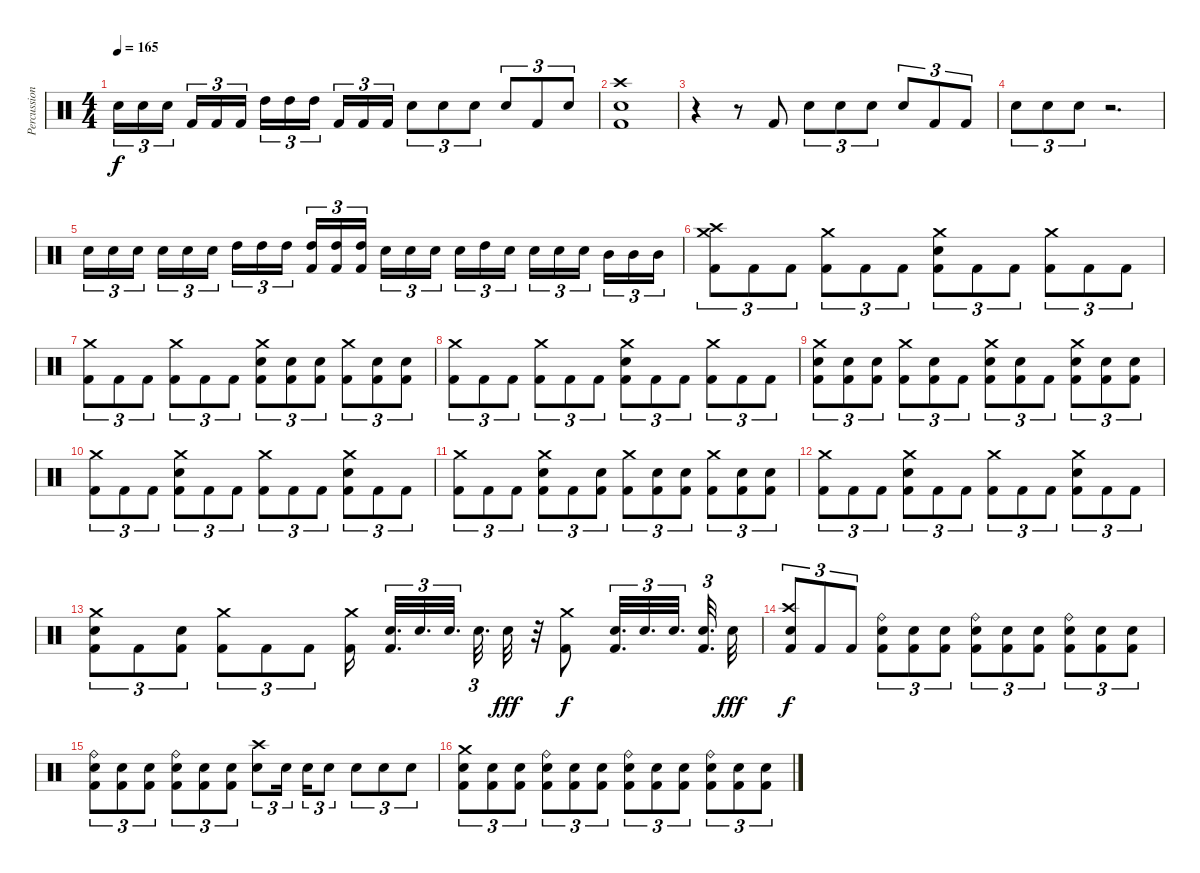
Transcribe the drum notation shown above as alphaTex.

\track ("Percussion" "Percussion") {instrument percussion}
\staff {score}
\articulation defaults
\ts (4 4)
\tempo 165
\clef neutral
\ks c "Electric Snare (hit)".16{tu (3 2) dy f} "Electric Snare (hit)".16{tu (3 2)} "Electric Snare (hit)".16{tu (3 2) beam splitsecondary} "Kick (hit) 2".16{tu (3 2)} "Kick (hit) 2".16{tu (3 2)} "Kick (hit) 2".16{tu (3 2)} "High Tom (hit)".16{tu (3 2)} "High Tom (hit)".16{tu (3 2)} "High Tom (hit)".16{tu (3 2) beam splitsecondary} "Kick (hit) 2".16{tu (3 2)} "Kick (hit) 2".16{tu (3 2)} "Kick (hit) 2".16{tu (3 2)} "Electric Snare (hit)".8{tu (3 2)} "Electric Snare (hit)".8{tu (3 2)} "Electric Snare (hit)".8{tu (3 2)} "Electric Snare (hit)".8{tu (3 2)} "Kick (hit) 2".8{tu (3 2)} "Electric Snare (hit)".8{tu (3 2)}
|
("Crash high (hit)" "Electric Snare (hit)" "Kick (hit) 2").1 |
r.4 r.8 "Kick (hit) 2".8 "Electric Snare (hit)".8{tu (3 2)} "Electric Snare (hit)".8{tu (3 2)} "Electric Snare (hit)".8{tu (3 2)} "Electric Snare (hit)".8{tu (3 2)} "Kick (hit) 2".8{tu (3 2)} "Kick (hit) 2".8{tu (3 2)} |
"Electric Snare (hit)".8{tu (3 2)} "Electric Snare (hit)".8{tu (3 2)} "Electric Snare (hit)".8{tu (3 2)} r.2{d} |
"Electric Snare (hit)".16{tu (3 2)} "Electric Snare (hit)".16{tu (3 2)} "Electric Snare (hit)".16{tu (3 2) beam splitsecondary} "Electric Snare (hit)".16{tu (3 2)} "Electric Snare (hit)".16{tu (3 2)} "Electric Snare (hit)".16{tu (3 2)} "High Tom (hit)".16{tu (3 2)} "High Tom (hit)".16{tu (3 2)} "High Tom (hit)".16{tu (3 2) beam splitsecondary} ("High Tom (hit)" "Kick (hit) 2").16{tu (3 2)} ("High Tom (hit)" "Kick (hit) 2").16{tu (3 2)} ("High Tom (hit)" "Kick (hit) 2").16{tu (3 2)} "Electric Snare (hit)".16{tu (3 2)} "Electric Snare (hit)".16{tu (3 2)} "Electric Snare (hit)".16{tu (3 2) beam splitsecondary} "Electric Snare (hit)".16{tu (3 2)} "High Tom (hit)".16{tu (3 2)} "Electric Snare (hit)".16{tu (3 2)} "Electric Snare (hit)".16{tu (3 2)} "Electric Snare (hit)".16{tu (3 2)} "Electric Snare (hit)".16{tu (3 2) beam splitsecondary} "Mid Tom (hit)".16{tu (3 2)} "Mid Tom (hit)".16{tu (3 2)} "Mid Tom (hit)".16{tu (3 2)} |
("Crash high (hit)" "Crash medium (hit)" "Kick (hit) 2").8{tu (3 2)} "Kick (hit) 2".8{tu (3 2)} "Kick (hit) 2".8{tu (3 2)} ("Crash medium (hit)" "Kick (hit) 2").8{tu (3 2)} "Kick (hit) 2".8{tu (3 2)} "Kick (hit) 2".8{tu (3 2)} ("Crash medium (hit)" "Electric Snare (hit)" "Kick (hit) 2").8{tu (3 2)} "Kick (hit) 2".8{tu (3 2)} "Kick (hit) 2".8{tu (3 2)} ("Crash medium (hit)" "Kick (hit) 2").8{tu (3 2)} "Kick (hit) 2".8{tu (3 2)} "Kick (hit) 2".8{tu (3 2)} |
("Crash medium (hit)" "Kick (hit) 2").8{tu (3 2)} "Kick (hit) 2".8{tu (3 2)} "Kick (hit) 2".8{tu (3 2)} ("Crash medium (hit)" "Kick (hit) 2").8{tu (3 2)} "Kick (hit) 2".8{tu (3 2)} "Kick (hit) 2".8{tu (3 2)} ("Crash medium (hit)" "Electric Snare (hit)" "Kick (hit) 2").8{tu (3 2)} ("Electric Snare (hit)" "Kick (hit) 2").8{tu (3 2)} ("Electric Snare (hit)" "Kick (hit) 2").8{tu (3 2)} ("Crash medium (hit)" "Kick (hit) 2").8{tu (3 2)} ("Electric Snare (hit)" "Kick (hit) 2").8{tu (3 2)} ("Electric Snare (hit)" "Kick (hit) 2").8{tu (3 2)} |
("Crash medium (hit)" "Kick (hit) 2").8{tu (3 2)} "Kick (hit) 2".8{tu (3 2)} "Kick (hit) 2".8{tu (3 2)} ("Crash medium (hit)" "Kick (hit) 2").8{tu (3 2)} "Kick (hit) 2".8{tu (3 2)} "Kick (hit) 2".8{tu (3 2)} ("Crash medium (hit)" "Electric Snare (hit)" "Kick (hit) 2").8{tu (3 2)} "Kick (hit) 2".8{tu (3 2)} "Kick (hit) 2".8{tu (3 2)} ("Crash medium (hit)" "Kick (hit) 2").8{tu (3 2)} "Kick (hit) 2".8{tu (3 2)} "Kick (hit) 2".8{tu (3 2)} |
("Crash medium (hit)" "Electric Snare (hit)" "Kick (hit) 2").8{tu (3 2)} ("Electric Snare (hit)" "Kick (hit) 2").8{tu (3 2)} ("Electric Snare (hit)" "Kick (hit) 2").8{tu (3 2)} ("Crash medium (hit)" "Kick (hit) 2").8{tu (3 2)} ("Electric Snare (hit)" "Kick (hit) 2").8{tu (3 2)} "Kick (hit) 2".8{tu (3 2)} ("Crash medium (hit)" "Electric Snare (hit)" "Kick (hit) 2").8{tu (3 2)} ("Electric Snare (hit)" "Kick (hit) 2").8{tu (3 2)} "Kick (hit) 2".8{tu (3 2)} ("Crash medium (hit)" "Electric Snare (hit)" "Kick (hit) 2").8{tu (3 2)} ("Electric Snare (hit)" "Kick (hit) 2").8{tu (3 2)} ("Electric Snare (hit)" "Kick (hit) 2").8{tu (3 2)} |
("Crash medium (hit)" "Kick (hit) 2").8{tu (3 2)} "Kick (hit) 2".8{tu (3 2)} "Kick (hit) 2".8{tu (3 2)} ("Crash medium (hit)" "Electric Snare (hit)" "Kick (hit) 2").8{tu (3 2)} "Kick (hit) 2".8{tu (3 2)} "Kick (hit) 2".8{tu (3 2)} ("Crash medium (hit)" "Kick (hit) 2").8{tu (3 2)} "Kick (hit) 2".8{tu (3 2)} "Kick (hit) 2".8{tu (3 2)} ("Crash medium (hit)" "Electric Snare (hit)" "Kick (hit) 2").8{tu (3 2)} "Kick (hit) 2".8{tu (3 2)} "Kick (hit) 2".8{tu (3 2)} |
("Crash medium (hit)" "Kick (hit) 2").8{tu (3 2)} "Kick (hit) 2".8{tu (3 2)} "Kick (hit) 2".8{tu (3 2)} ("Crash medium (hit)" "Electric Snare (hit)" "Kick (hit) 2").8{tu (3 2)} "Kick (hit) 2".8{tu (3 2)} ("Electric Snare (hit)" "Kick (hit) 2").8{tu (3 2)} ("Crash medium (hit)" "Kick (hit) 2").8{tu (3 2)} ("Electric Snare (hit)" "Kick (hit) 2").8{tu (3 2)} ("Electric Snare (hit)" "Kick (hit) 2").8{tu (3 2)} ("Crash medium (hit)" "Kick (hit) 2").8{tu (3 2)} ("Electric Snare (hit)" "Kick (hit) 2").8{tu (3 2)} ("Electric Snare (hit)" "Kick (hit) 2").8{tu (3 2)} |
("Crash medium (hit)" "Kick (hit) 2").8{tu (3 2)} "Kick (hit) 2".8{tu (3 2)} "Kick (hit) 2".8{tu (3 2)} ("Crash medium (hit)" "Electric Snare (hit)" "Kick (hit) 2").8{tu (3 2)} "Kick (hit) 2".8{tu (3 2)} "Kick (hit) 2".8{tu (3 2)} ("Crash medium (hit)" "Kick (hit) 2").8{tu (3 2)} "Kick (hit) 2".8{tu (3 2)} "Kick (hit) 2".8{tu (3 2)} ("Crash medium (hit)" "Electric Snare (hit)" "Kick (hit) 2").8{tu (3 2)} "Kick (hit) 2".8{tu (3 2)} "Kick (hit) 2".8{tu (3 2)} |
("Crash medium (hit)" "Electric Snare (hit)" "Kick (hit) 2").8{tu (3 2)} "Kick (hit) 2".8{tu (3 2)} ("Electric Snare (hit)" "Kick (hit) 2").8{tu (3 2)} ("Crash medium (hit)" "Kick (hit) 2").8{tu (3 2)} "Kick (hit) 2".8{tu (3 2)} "Kick (hit) 2".8{tu (3 2)} ("Crash medium (hit)" "Kick (hit) 2").16{beam splitsecondary} ("Electric Snare (hit)" "Kick (hit) 2").32{d tu (3 2)} "Electric Snare (hit)".32{d tu (3 2)} "Electric Snare (hit)".32{d tu (3 2)} "Electric Snare (hit)".32{d tu (3 2) beam splitsecondary} "Electric Snare (hit)".32{dy fff} r.32 ("Crash medium (hit)" "Kick (hit) 2").8{dy f} ("Electric Snare (hit)" "Kick (hit) 2").32{d tu (3 2)} "Electric Snare (hit)".32{d tu (3 2)} "Electric Snare (hit)".32{d tu (3 2)} ("Electric Snare (hit)" "Kick (hit) 2").32{d tu (3 2)} "Electric Snare (hit)".32{dy fff} |
("Crash high (hit)" "Snare (hit)" "Kick (hit) 2").8{tu (3 2) dy f} "Kick (hit) 2".8{tu (3 2)} "Kick (hit) 2".8{tu (3 2)} ("Ride (bell)" "Electric Snare (hit)" "Kick (hit) 2").8{tu (3 2)} ("Electric Snare (hit)" "Kick (hit) 2").8{tu (3 2)} ("Electric Snare (hit)" "Kick (hit) 2").8{tu (3 2)} ("Ride (bell)" "Electric Snare (hit)" "Kick (hit) 2").8{tu (3 2)} ("Electric Snare (hit)" "Kick (hit) 2").8{tu (3 2)} ("Electric Snare (hit)" "Kick (hit) 2").8{tu (3 2)} ("Ride (bell)" "Electric Snare (hit)" "Kick (hit) 2").8{tu (3 2)} ("Electric Snare (hit)" "Kick (hit) 2").8{tu (3 2)} ("Electric Snare (hit)" "Kick (hit) 2").8{tu (3 2)} |
("Ride (bell)" "Electric Snare (hit)" "Kick (hit) 2").8{tu (3 2)} ("Electric Snare (hit)" "Kick (hit) 2").8{tu (3 2)} ("Electric Snare (hit)" "Kick (hit) 2").8{tu (3 2)} ("Ride (bell)" "Electric Snare (hit)" "Kick (hit) 2").8{tu (3 2)} ("Electric Snare (hit)" "Kick (hit) 2").8{tu (3 2)} ("Electric Snare (hit)" "Kick (hit) 2").8{tu (3 2)} ("Crash high (hit)" "Electric Snare (hit)").8{tu (3 2)} "Electric Snare (hit)".16{tu (3 2) beam splitsecondary} "Electric Snare (hit)".16{tu (3 2)} "Electric Snare (hit)".8{tu (3 2)} "Electric Snare (hit)".8{tu (3 2)} "Electric Snare (hit)".8{tu (3 2)} "Electric Snare (hit)".8{tu (3 2)} |
("Crash medium (hit)" "Electric Snare (hit)" "Kick (hit) 2").8{tu (3 2)} ("Electric Snare (hit)" "Kick (hit) 2").8{tu (3 2)} ("Electric Snare (hit)" "Kick (hit) 2").8{tu (3 2)} ("Ride (bell)" "Electric Snare (hit)" "Kick (hit) 2").8{tu (3 2)} ("Electric Snare (hit)" "Kick (hit) 2").8{tu (3 2)} ("Electric Snare (hit)" "Kick (hit) 2").8{tu (3 2)} ("Ride (bell)" "Electric Snare (hit)" "Kick (hit) 2").8{tu (3 2)} ("Electric Snare (hit)" "Kick (hit) 2").8{tu (3 2)} ("Electric Snare (hit)" "Kick (hit) 2").8{tu (3 2)} ("Ride (bell)" "Electric Snare (hit)" "Kick (hit) 2").8{tu (3 2)} ("Electric Snare (hit)" "Kick (hit) 2").8{tu (3 2)} ("Electric Snare (hit)" "Kick (hit) 2").8{tu (3 2)}
